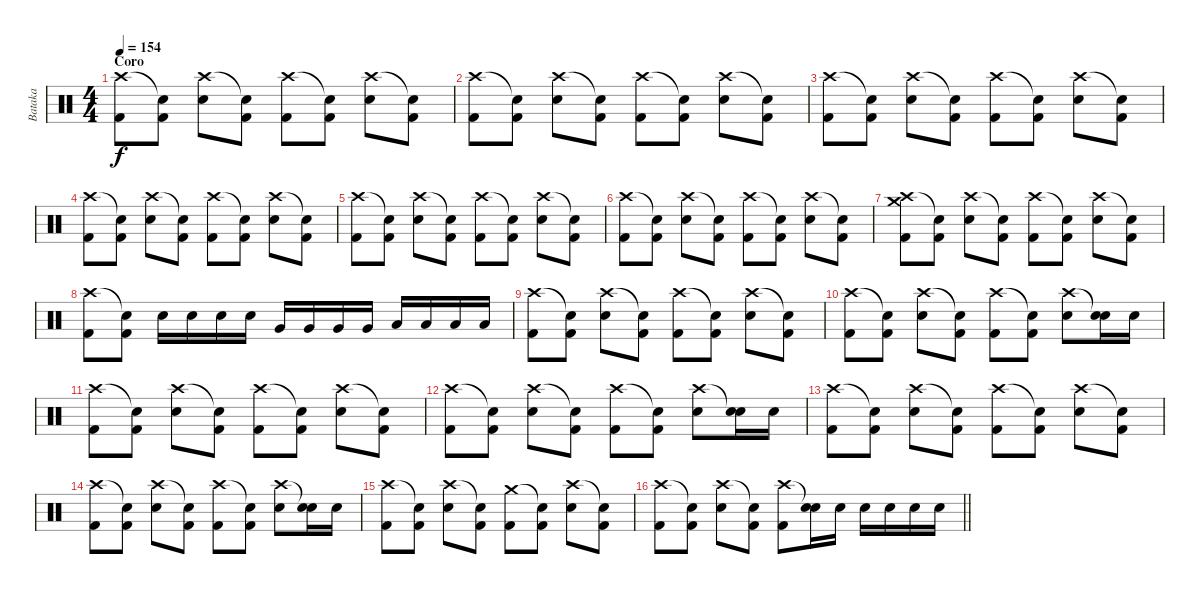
\track ("Bataka" "Bataka") {instrument percussion}
\staff {score}
\articulation defaults
\ts (4 4)
\section ("" "Coro")
\tempo 154
\clef neutral
\ks c
("Crash high (hit)" "Kick (hit) 2").8{dy f} ("Snare (hit)"{t} "Kick (hit) 2").8 ("Crash high (hit)" "Electric Snare (hit)").8 ("Snare (hit)"{t} "Kick (hit) 2").8 ("Crash high (hit)" "Kick (hit) 2").8 ("Snare (hit)"{t} "Kick (hit) 2").8 ("Crash high (hit)" "Electric Snare (hit)").8 ("Snare (hit)"{t} "Kick (hit) 2").8 |
("Crash high (hit)" "Kick (hit) 2").8 ("Snare (hit)"{t} "Kick (hit) 2").8 ("Crash high (hit)" "Electric Snare (hit)").8 ("Snare (hit)"{t} "Kick (hit) 2").8 ("Crash high (hit)" "Kick (hit) 2").8 ("Snare (hit)"{t} "Kick (hit) 2").8 ("Crash high (hit)" "Electric Snare (hit)").8 ("Snare (hit)"{t} "Kick (hit) 2").8 |
("Crash high (hit)" "Kick (hit) 2").8 ("Snare (hit)"{t} "Kick (hit) 2").8 ("Crash high (hit)" "Electric Snare (hit)").8 ("Snare (hit)"{t} "Kick (hit) 2").8 ("Crash high (hit)" "Kick (hit) 2").8 ("Snare (hit)"{t} "Kick (hit) 2").8 ("Crash high (hit)" "Electric Snare (hit)").8 ("Snare (hit)"{t} "Kick (hit) 2").8 |
("Crash high (hit)" "Kick (hit) 2").8 ("Snare (hit)"{t} "Kick (hit) 2").8 ("Crash high (hit)" "Electric Snare (hit)").8 ("Snare (hit)"{t} "Kick (hit) 2").8 ("Crash high (hit)" "Kick (hit) 2").8 ("Snare (hit)"{t} "Kick (hit) 2").8 ("Crash high (hit)" "Electric Snare (hit)").8 ("Snare (hit)"{t} "Kick (hit) 2").8 |
("Crash high (hit)" "Kick (hit) 2").8 ("Snare (hit)"{t} "Kick (hit) 2").8 ("Crash high (hit)" "Electric Snare (hit)").8 ("Snare (hit)"{t} "Kick (hit) 2").8 ("Crash high (hit)" "Kick (hit) 2").8 ("Snare (hit)"{t} "Kick (hit) 2").8 ("Crash high (hit)" "Electric Snare (hit)").8 ("Snare (hit)"{t} "Kick (hit) 2").8 |
("Crash high (hit)" "Kick (hit) 2").8 ("Snare (hit)"{t} "Kick (hit) 2").8 ("Crash high (hit)" "Electric Snare (hit)").8 ("Snare (hit)"{t} "Kick (hit) 2").8 ("Crash high (hit)" "Kick (hit) 2").8 ("Snare (hit)"{t} "Kick (hit) 2").8 ("Crash high (hit)" "Electric Snare (hit)").8 ("Snare (hit)"{t} "Kick (hit) 2").8 |
("Crash high (hit)" "Crash medium (hit)" "Kick (hit) 2").8 ("Snare (hit)"{t} "Kick (hit) 2").8 ("Crash high (hit)" "Electric Snare (hit)").8 ("Snare (hit)"{t} "Kick (hit) 2").8 ("Crash high (hit)" "Kick (hit) 2").8 ("Snare (hit)"{t} "Kick (hit) 2").8 ("Crash high (hit)" "Electric Snare (hit)").8 ("Snare (hit)"{t} "Kick (hit) 2").8 |
("Crash high (hit)" "Kick (hit) 2").8 ("Snare (hit)"{t} "Kick (hit) 2").8 "Electric Snare (hit)".16 "Electric Snare (hit)".16 "Electric Snare (hit)".16 "Electric Snare (hit)".16 "Very Low Tom (hit)".16 "Very Low Tom (hit)".16 "Very Low Tom (hit)".16 "Very Low Tom (hit)".16 "Low Floor Tom (hit)".16 "Low Floor Tom (hit)".16 "Low Floor Tom (hit)".16 "Low Floor Tom (hit)".16 |
("Crash high (hit)" "Kick (hit) 2").8 ("Snare (hit)"{t} "Kick (hit) 2").8 ("Crash high (hit)" "Electric Snare (hit)").8 ("Snare (hit)"{t} "Kick (hit) 2").8 ("Crash high (hit)" "Kick (hit) 2").8 ("Snare (hit)"{t} "Kick (hit) 2").8 ("Crash high (hit)" "Electric Snare (hit)").8 ("Snare (hit)"{t} "Kick (hit) 2").8 |
("Crash high (hit)" "Kick (hit) 2").8 ("Snare (hit)"{t} "Kick (hit) 2").8 ("Crash high (hit)" "Electric Snare (hit)").8 ("Snare (hit)"{t} "Kick (hit) 2").8 ("Crash high (hit)" "Kick (hit) 2").8 ("Snare (hit)"{t} "Kick (hit) 2").8 ("Crash high (hit)" "Electric Snare (hit)").8 ("Snare (hit)"{t} "Electric Snare (hit)").16 "Electric Snare (hit)".16 |
("Crash high (hit)" "Kick (hit) 2").8 ("Snare (hit)"{t} "Kick (hit) 2").8 ("Crash high (hit)" "Electric Snare (hit)").8 ("Snare (hit)"{t} "Kick (hit) 2").8 ("Crash high (hit)" "Kick (hit) 2").8 ("Snare (hit)"{t} "Kick (hit) 2").8 ("Crash high (hit)" "Electric Snare (hit)").8 ("Snare (hit)"{t} "Kick (hit) 2").8 |
("Crash high (hit)" "Kick (hit) 2").8 ("Snare (hit)"{t} "Kick (hit) 2").8 ("Crash high (hit)" "Electric Snare (hit)").8 ("Snare (hit)"{t} "Kick (hit) 2").8 ("Crash high (hit)" "Kick (hit) 2").8 ("Snare (hit)"{t} "Kick (hit) 2").8 ("Crash high (hit)" "Electric Snare (hit)").8 ("Snare (hit)"{t} "Electric Snare (hit)").16 "Electric Snare (hit)".16 |
("Crash high (hit)" "Kick (hit) 2").8 ("Snare (hit)"{t} "Kick (hit) 2").8 ("Crash high (hit)" "Electric Snare (hit)").8 ("Snare (hit)"{t} "Kick (hit) 2").8 ("Crash high (hit)" "Kick (hit) 2").8 ("Snare (hit)"{t} "Kick (hit) 2").8 ("Crash high (hit)" "Electric Snare (hit)").8 ("Snare (hit)"{t} "Kick (hit) 2").8 |
("Crash high (hit)" "Kick (hit) 2").8 ("Snare (hit)"{t} "Kick (hit) 2").8 ("Crash high (hit)" "Electric Snare (hit)").8 ("Snare (hit)"{t} "Kick (hit) 2").8 ("Crash high (hit)" "Kick (hit) 2").8 ("Snare (hit)"{t} "Kick (hit) 2").8 ("Crash high (hit)" "Electric Snare (hit)").8 ("Snare (hit)"{t} "Electric Snare (hit)").16 "Electric Snare (hit)".16 |
("Crash high (hit)" "Kick (hit) 2").8 ("Snare (hit)"{t} "Kick (hit) 2").8 ("Crash high (hit)" "Electric Snare (hit)").8 ("Snare (hit)"{t} "Kick (hit) 2").8 ("Crash medium (hit)" "Kick (hit) 2").8 ("Snare (hit)"{t} "Kick (hit) 2").8 ("Crash high (hit)" "Electric Snare (hit)").8 ("Snare (hit)"{t} "Kick (hit) 2").8 |
\barLineRight lightlight
("Crash high (hit)" "Kick (hit) 2").8 ("Snare (hit)"{t} "Kick (hit) 2").8 ("Crash high (hit)" "Electric Snare (hit)").8 ("Snare (hit)"{t} "Kick (hit) 2").8 ("Crash high (hit)" "Kick (hit) 2").8 ("Snare (hit)"{t} "Electric Snare (hit)").16 "Electric Snare (hit)".16 "Electric Snare (hit)".16 "Electric Snare (hit)".16 "Electric Snare (hit)".16 "Electric Snare (hit)".16
